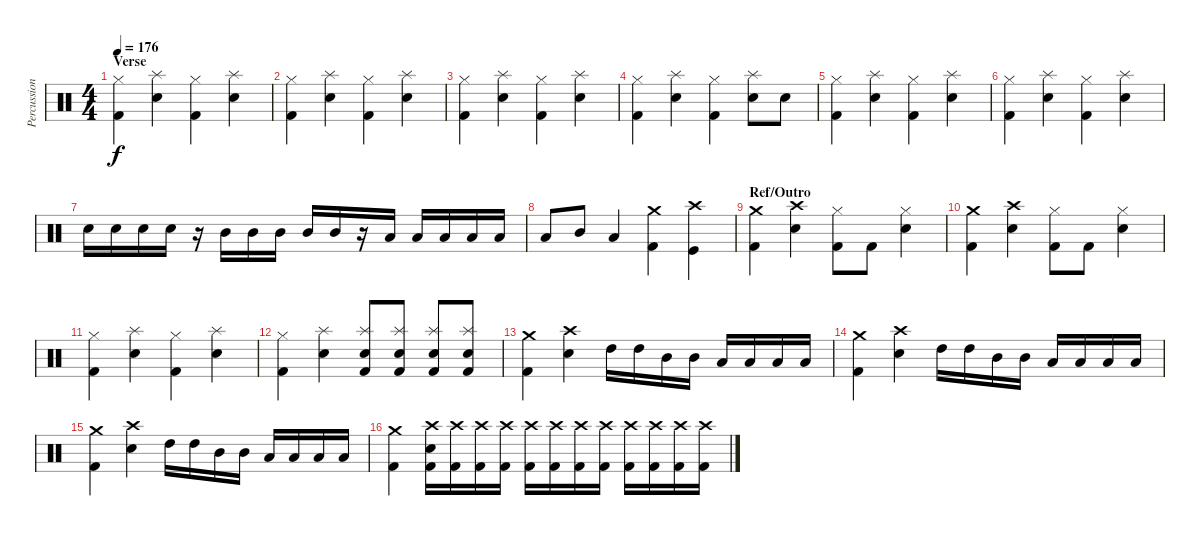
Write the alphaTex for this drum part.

\track ("Percussion" "Percussion") {instrument percussion}
\staff {score}
\articulation defaults
\ts (4 4)
\section ("" "Verse")
\tempo 176
\clef neutral
\ks c
("Hi-Hat (closed)" "Kick (hit) 2").4{dy f} ("Splash (hit)" "Snare (hit) 2").4 ("Hi-Hat (closed)" "Kick (hit) 2").4 ("Splash (hit)" "Snare (hit) 2").4 |
("Hi-Hat (closed)" "Kick (hit) 2").4 ("Splash (hit)" "Snare (hit) 2").4 ("Hi-Hat (closed)" "Kick (hit) 2").4 ("Splash (hit)" "Snare (hit) 2").4 |
("Hi-Hat (closed)" "Kick (hit) 2").4 ("Splash (hit)" "Snare (hit) 2").4 ("Hi-Hat (closed)" "Kick (hit) 2").4 ("Splash (hit)" "Snare (hit) 2").4 |
("Hi-Hat (closed)" "Kick (hit) 2").4 ("Splash (hit)" "Snare (hit) 2").4 ("Hi-Hat (closed)" "Kick (hit) 2").4 ("Splash (hit)" "Snare (hit) 2").8 "Snare (hit) 2".8 |
("Hi-Hat (closed)" "Kick (hit) 2").4 ("Splash (hit)" "Snare (hit) 2").4 ("Hi-Hat (closed)" "Kick (hit) 2").4 ("Splash (hit)" "Snare (hit) 2").4 |
("Hi-Hat (closed)" "Kick (hit) 2").4 ("Splash (hit)" "Snare (hit) 2").4 ("Hi-Hat (closed)" "Kick (hit) 2").4 ("Splash (hit)" "Snare (hit) 2").4 |
"Snare (hit) 2".16 "Snare (hit) 2".16 "Snare (hit) 2".16 "Snare (hit) 2".16 r.16 "Mid Tom (hit)".16 "Mid Tom (hit)".16 "Mid Tom (hit)".16 "Mid Tom (hit)".16 "Mid Tom (hit)".16 r.16 "Low Tom (hit)".16 "Low Tom (hit)".16 "Low Tom (hit)".16 "Low Tom (hit)".16 "Low Tom (hit)".16 |
"Low Tom (hit)".8 "Mid Tom (hit)".8 "Low Tom (hit)".4 ("Crash medium (hit)" "Kick (hit) 2").4 ("Crash high (hit)" "Kick (hit)").4 |
\section ("" "Ref/Outro")
("Crash medium (hit)" "Kick (hit) 2").4 ("Crash high (hit)" "Snare (hit) 2").4 ("Hi-Hat (closed)" "Kick (hit) 2").8 "Kick (hit) 2".8 ("Hi-Hat (closed)" "Snare (hit) 2").4 |
("Crash medium (hit)" "Kick (hit) 2").4 ("Crash high (hit)" "Snare (hit) 2").4 ("Hi-Hat (closed)" "Kick (hit) 2").8 "Kick (hit) 2".8 ("Hi-Hat (closed)" "Snare (hit) 2").4 |
("Hi-Hat (closed)" "Kick (hit) 2").4 ("Splash (hit)" "Snare (hit) 2").4 ("Hi-Hat (closed)" "Kick (hit) 2").4 ("Splash (hit)" "Snare (hit) 2").4 |
("Hi-Hat (closed)" "Kick (hit) 2").4 ("Splash (hit)" "Snare (hit) 2").4 ("Splash (hit)" "Snare (hit) 2" "Kick (hit) 2").8 ("Splash (hit)" "Snare (hit) 2" "Kick (hit) 2").8 ("Splash (hit)" "Snare (hit) 2" "Kick (hit) 2").8 ("Splash (hit)" "Snare (hit) 2" "Kick (hit) 2").8 |
("Crash medium (hit)" "Kick (hit) 2").4 ("Crash high (hit)" "Snare (hit) 2").4 "High Tom (hit)".16 "High Tom (hit)".16 "Mid Tom (hit)".16 "Mid Tom (hit)".16 "Low Tom (hit)".16 "Low Tom (hit)".16 "Low Tom (hit)".16 "Low Tom (hit)".16 |
("Crash medium (hit)" "Kick (hit) 2").4 ("Crash high (hit)" "Snare (hit) 2").4 "High Tom (hit)".16 "High Tom (hit)".16 "Mid Tom (hit)".16 "Mid Tom (hit)".16 "Low Tom (hit)".16 "Low Tom (hit)".16 "Low Tom (hit)".16 "Low Tom (hit)".16 |
("Crash medium (hit)" "Kick (hit) 2").4 ("Crash high (hit)" "Snare (hit) 2").4 "High Tom (hit)".16 "High Tom (hit)".16 "Mid Tom (hit)".16 "Mid Tom (hit)".16 "Low Tom (hit)".16 "Low Tom (hit)".16 "Low Tom (hit)".16 "Low Tom (hit)".16 |
("Crash medium (hit)" "Kick (hit) 2").4 ("Crash high (hit)" "Snare (hit) 2" "Kick (hit) 2").16 ("Crash high (hit)" "Kick (hit) 2").16 ("Crash high (hit)" "Kick (hit) 2").16 ("Crash high (hit)" "Kick (hit) 2").16 ("Crash high (hit)" "Kick (hit) 2").16 ("Crash high (hit)" "Kick (hit) 2").16 ("Crash high (hit)" "Kick (hit) 2").16 ("Crash high (hit)" "Kick (hit) 2").16 ("Crash high (hit)" "Kick (hit) 2").16 ("Crash high (hit)" "Kick (hit) 2").16 ("Crash high (hit)" "Kick (hit) 2").16 ("Crash high (hit)" "Kick (hit) 2").16
